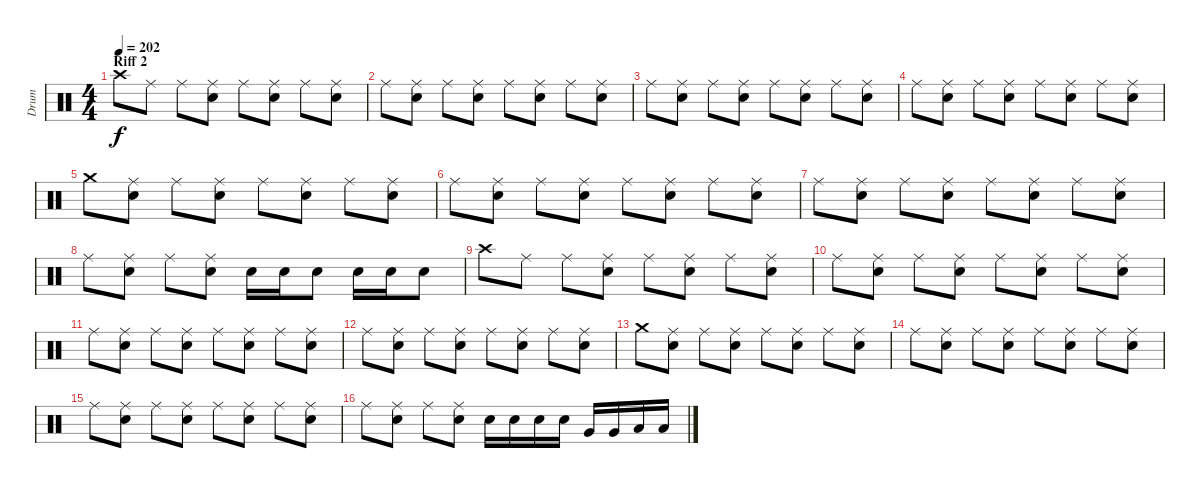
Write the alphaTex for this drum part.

\track ("Drum" "Drum") {instrument percussion}
\staff {score}
\articulation defaults
\ts (4 4)
\section ("" "Riff 2")
\tempo 202
\clef neutral
\ks c "Crash high (hit)".8{dy f} "Ride (middle)".8 "Ride (middle)".8
("Ride (middle)" "Electric Snare (hit)").8 "Ride (middle)".8 ("Ride (middle)" "Electric Snare (hit)").8 "Ride (middle)".8 ("Ride (middle)" "Electric Snare (hit)").8 |
"Ride (middle)".8 ("Ride (middle)" "Electric Snare (hit)").8 "Ride (middle)".8 ("Ride (middle)" "Electric Snare (hit)").8 "Ride (middle)".8 ("Ride (middle)" "Electric Snare (hit)").8 "Ride (middle)".8 ("Ride (middle)" "Electric Snare (hit)").8 |
"Ride (middle)".8 ("Ride (middle)" "Electric Snare (hit)").8 "Ride (middle)".8 ("Ride (middle)" "Electric Snare (hit)").8 "Ride (middle)".8 ("Ride (middle)" "Electric Snare (hit)").8 "Ride (middle)".8 ("Ride (middle)" "Electric Snare (hit)").8 |
"Ride (middle)".8 ("Ride (middle)" "Electric Snare (hit)").8 "Ride (middle)".8 ("Ride (middle)" "Electric Snare (hit)").8 "Ride (middle)".8 ("Ride (middle)" "Electric Snare (hit)").8 "Ride (middle)".8 ("Ride (middle)" "Electric Snare (hit)").8 |
"Crash medium (hit)".8 ("Ride (middle)" "Electric Snare (hit)").8 "Ride (middle)".8 ("Ride (middle)" "Electric Snare (hit)").8 "Ride (middle)".8 ("Ride (middle)" "Electric Snare (hit)").8 "Ride (middle)".8 ("Ride (middle)" "Electric Snare (hit)").8 |
"Ride (middle)".8 ("Ride (middle)" "Electric Snare (hit)").8 "Ride (middle)".8 ("Ride (middle)" "Electric Snare (hit)").8 "Ride (middle)".8 ("Ride (middle)" "Electric Snare (hit)").8 "Ride (middle)".8 ("Ride (middle)" "Electric Snare (hit)").8 |
"Ride (middle)".8 ("Ride (middle)" "Electric Snare (hit)").8 "Ride (middle)".8 ("Ride (middle)" "Electric Snare (hit)").8 "Ride (middle)".8 ("Ride (middle)" "Electric Snare (hit)").8 "Ride (middle)".8 ("Ride (middle)" "Electric Snare (hit)").8 |
"Ride (middle)".8 ("Ride (middle)" "Electric Snare (hit)").8 "Ride (middle)".8 ("Ride (middle)" "Electric Snare (hit)").8 "Electric Snare (hit)".16 "Electric Snare (hit)".16 "Electric Snare (hit)".8 "Electric Snare (hit)".16 "Electric Snare (hit)".16 "Electric Snare (hit)".8 |
"Crash high (hit)".8 "Ride (middle)".8 "Ride (middle)".8 ("Ride (middle)" "Electric Snare (hit)").8 "Ride (middle)".8 ("Ride (middle)" "Electric Snare (hit)").8 "Ride (middle)".8 ("Ride (middle)" "Electric Snare (hit)").8 |
"Ride (middle)".8 ("Ride (middle)" "Electric Snare (hit)").8 "Ride (middle)".8 ("Ride (middle)" "Electric Snare (hit)").8 "Ride (middle)".8 ("Ride (middle)" "Electric Snare (hit)").8 "Ride (middle)".8 ("Ride (middle)" "Electric Snare (hit)").8 |
"Ride (middle)".8 ("Ride (middle)" "Electric Snare (hit)").8 "Ride (middle)".8 ("Ride (middle)" "Electric Snare (hit)").8 "Ride (middle)".8 ("Ride (middle)" "Electric Snare (hit)").8 "Ride (middle)".8 ("Ride (middle)" "Electric Snare (hit)").8 |
"Ride (middle)".8 ("Ride (middle)" "Electric Snare (hit)").8 "Ride (middle)".8 ("Ride (middle)" "Electric Snare (hit)").8 "Ride (middle)".8 ("Ride (middle)" "Electric Snare (hit)").8 "Ride (middle)".8 ("Ride (middle)" "Electric Snare (hit)").8 |
"Crash medium (hit)".8 ("Ride (middle)" "Electric Snare (hit)").8 "Ride (middle)".8 ("Ride (middle)" "Electric Snare (hit)").8 "Ride (middle)".8 ("Ride (middle)" "Electric Snare (hit)").8 "Ride (middle)".8 ("Ride (middle)" "Electric Snare (hit)").8 |
"Ride (middle)".8 ("Ride (middle)" "Electric Snare (hit)").8 "Ride (middle)".8 ("Ride (middle)" "Electric Snare (hit)").8 "Ride (middle)".8 ("Ride (middle)" "Electric Snare (hit)").8 "Ride (middle)".8 ("Ride (middle)" "Electric Snare (hit)").8 |
"Ride (middle)".8 ("Ride (middle)" "Electric Snare (hit)").8 "Ride (middle)".8 ("Ride (middle)" "Electric Snare (hit)").8 "Ride (middle)".8 ("Ride (middle)" "Electric Snare (hit)").8 "Ride (middle)".8 ("Ride (middle)" "Electric Snare (hit)").8 |
"Ride (middle)".8 ("Ride (middle)" "Electric Snare (hit)").8 "Ride (middle)".8 ("Ride (middle)" "Electric Snare (hit)").8 "Electric Snare (hit)".16 "Electric Snare (hit)".16 "Electric Snare (hit)".16 "Electric Snare (hit)".16 "Very Low Tom (hit)".16 "Very Low Tom (hit)".16 "Low Floor Tom (hit)".16 "Low Floor Tom (hit)".16
